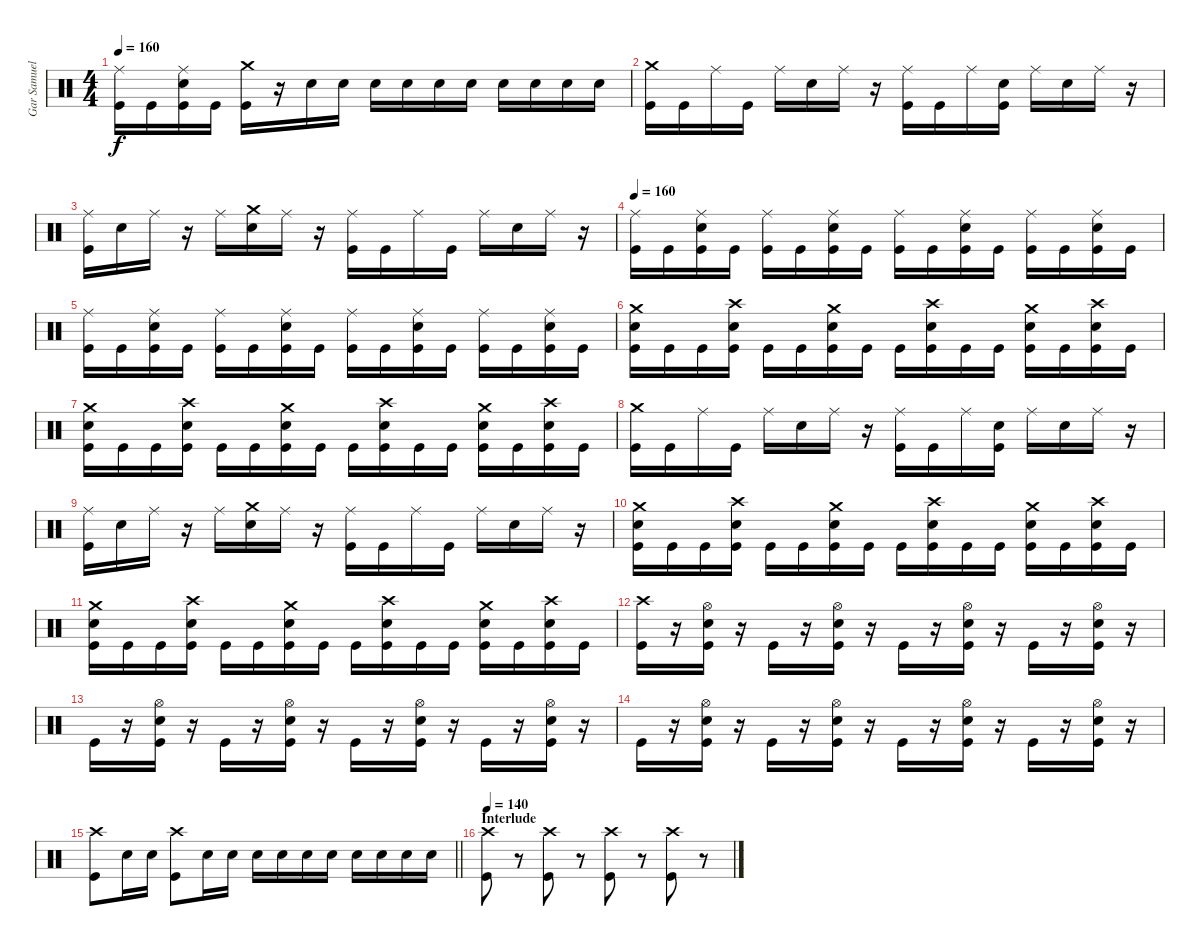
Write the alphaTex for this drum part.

\track ("Gar Samuelson" "Gar Samuel") {instrument percussion}
\staff {score}
\articulation defaults
\ts (4 4)
\tempo 160
\clef neutral
\ks c
("Ride (middle)" "Kick (hit)").16{dy f} "Kick (hit)".16 ("Ride (middle)" "Snare (hit) 2" "Kick (hit)").16 "Kick (hit)".16 ("Crash medium (hit)" "Kick (hit)").16 r.16 "Snare (hit) 2".16 "Snare (hit) 2".16 "Snare (hit) 2".16 "Snare (hit) 2".16 "Snare (hit) 2".16 "Snare (hit) 2".16 "Snare (hit) 2".16 "Snare (hit) 2".16 "Snare (hit) 2".16 "Snare (hit) 2".16 |
("Crash medium (hit)" "Kick (hit)").16 "Kick (hit)".16 "Ride (middle)".16 "Kick (hit)".16 "Ride (middle)".16 "Snare (hit) 2".16 "Ride (middle)".16 r.16 ("Ride (middle)" "Kick (hit)").16 "Kick (hit)".16 "Ride (middle)".16 ("Snare (hit) 2" "Kick (hit)").16 "Ride (middle)".16 "Snare (hit) 2".16 "Ride (middle)".16 r.16 |
("Ride (middle)" "Kick (hit)").16 "Snare (hit) 2".16 "Ride (middle)".16 r.16 "Ride (middle)".16 ("Crash medium (hit)" "Snare (hit) 2").16 "Ride (middle)".16 r.16 ("Ride (middle)" "Kick (hit)").16 "Kick (hit)".16 "Ride (middle)".16 "Kick (hit)".16 "Ride (middle)".16 "Snare (hit) 2".16 "Ride (middle)".16 r.16 |
\tempo 160
("Ride (middle)" "Kick (hit)").16 "Kick (hit)".16 ("Ride (middle)" "Snare (hit) 2" "Kick (hit)").16 "Kick (hit)".16 ("Ride (middle)" "Kick (hit)").16 "Kick (hit)".16 ("Ride (middle)" "Snare (hit) 2" "Kick (hit)").16 "Kick (hit)".16 ("Ride (middle)" "Kick (hit)").16 "Kick (hit)".16 ("Ride (middle)" "Snare (hit) 2" "Kick (hit)").16 "Kick (hit)".16 ("Ride (middle)" "Kick (hit)").16 "Kick (hit)".16 ("Ride (middle)" "Snare (hit) 2" "Kick (hit)").16 "Kick (hit)".16 |
("Ride (middle)" "Kick (hit)").16 "Kick (hit)".16 ("Ride (middle)" "Snare (hit) 2" "Kick (hit)").16 "Kick (hit)".16 ("Ride (middle)" "Kick (hit)").16 "Kick (hit)".16 ("Ride (middle)" "Snare (hit) 2" "Kick (hit)").16 "Kick (hit)".16 ("Ride (middle)" "Kick (hit)").16 "Kick (hit)".16 ("Ride (middle)" "Snare (hit) 2" "Kick (hit)").16 "Kick (hit)".16 ("Ride (middle)" "Kick (hit)").16 "Kick (hit)".16 ("Ride (middle)" "Snare (hit) 2" "Kick (hit)").16 "Kick (hit)".16 |
("Crash medium (hit)" "Snare (hit) 2" "Kick (hit)").16 "Kick (hit)".16 "Kick (hit)".16 ("Crash high (hit)" "Snare (hit) 2" "Kick (hit)").16 "Kick (hit)".16 "Kick (hit)".16 ("Crash medium (hit)" "Snare (hit) 2" "Kick (hit)").16 "Kick (hit)".16 "Kick (hit)".16 ("Crash high (hit)" "Snare (hit) 2" "Kick (hit)").16 "Kick (hit)".16 "Kick (hit)".16 ("Crash medium (hit)" "Snare (hit) 2" "Kick (hit)").16 "Kick (hit)".16 ("Crash high (hit)" "Snare (hit) 2" "Kick (hit)").16 "Kick (hit)".16 |
("Crash medium (hit)" "Snare (hit) 2" "Kick (hit)").16 "Kick (hit)".16 "Kick (hit)".16 ("Crash high (hit)" "Snare (hit) 2" "Kick (hit)").16 "Kick (hit)".16 "Kick (hit)".16 ("Crash medium (hit)" "Snare (hit) 2" "Kick (hit)").16 "Kick (hit)".16 "Kick (hit)".16 ("Crash high (hit)" "Snare (hit) 2" "Kick (hit)").16 "Kick (hit)".16 "Kick (hit)".16 ("Crash medium (hit)" "Snare (hit) 2" "Kick (hit)").16 "Kick (hit)".16 ("Crash high (hit)" "Snare (hit) 2" "Kick (hit)").16 "Kick (hit)".16 |
("Crash medium (hit)" "Kick (hit)").16 "Kick (hit)".16 "Ride (middle)".16 "Kick (hit)".16 "Ride (middle)".16 "Snare (hit) 2".16 "Ride (middle)".16 r.16 ("Ride (middle)" "Kick (hit)").16 "Kick (hit)".16 "Ride (middle)".16 ("Snare (hit) 2" "Kick (hit)").16 "Ride (middle)".16 "Snare (hit) 2".16 "Ride (middle)".16 r.16 |
("Ride (middle)" "Kick (hit)").16 "Snare (hit) 2".16 "Ride (middle)".16 r.16 "Ride (middle)".16 ("Crash medium (hit)" "Snare (hit) 2").16 "Ride (middle)".16 r.16 ("Ride (middle)" "Kick (hit)").16 "Kick (hit)".16 "Ride (middle)".16 "Kick (hit)".16 "Ride (middle)".16 "Snare (hit) 2".16 "Ride (middle)".16 r.16 |
("Crash medium (hit)" "Snare (hit) 2" "Kick (hit)").16 "Kick (hit)".16 "Kick (hit)".16 ("Crash high (hit)" "Snare (hit) 2" "Kick (hit)").16 "Kick (hit)".16 "Kick (hit)".16 ("Crash medium (hit)" "Snare (hit) 2" "Kick (hit)").16 "Kick (hit)".16 "Kick (hit)".16 ("Crash high (hit)" "Snare (hit) 2" "Kick (hit)").16 "Kick (hit)".16 "Kick (hit)".16 ("Crash medium (hit)" "Snare (hit) 2" "Kick (hit)").16 "Kick (hit)".16 ("Crash high (hit)" "Snare (hit) 2" "Kick (hit)").16 "Kick (hit)".16 |
("Crash medium (hit)" "Snare (hit) 2" "Kick (hit)").16 "Kick (hit)".16 "Kick (hit)".16 ("Crash high (hit)" "Snare (hit) 2" "Kick (hit)").16 "Kick (hit)".16 "Kick (hit)".16 ("Crash medium (hit)" "Snare (hit) 2" "Kick (hit)").16 "Kick (hit)".16 "Kick (hit)".16 ("Crash high (hit)" "Snare (hit) 2" "Kick (hit)").16 "Kick (hit)".16 "Kick (hit)".16 ("Crash medium (hit)" "Snare (hit) 2" "Kick (hit)").16 "Kick (hit)".16 ("Crash high (hit)" "Snare (hit) 2" "Kick (hit)").16 "Kick (hit)".16 |
("Crash high (hit)" "Kick (hit)").16 r.16 ("Hi-Hat (open)" "Snare (hit) 2" "Kick (hit)").16 r.16 "Kick (hit)".16 r.16 ("Hi-Hat (open)" "Snare (hit) 2" "Kick (hit)").16 r.16 "Kick (hit)".16 r.16 ("Hi-Hat (open)" "Snare (hit) 2" "Kick (hit)").16 r.16 "Kick (hit)".16 r.16 ("Hi-Hat (open)" "Snare (hit) 2" "Kick (hit)").16 r.16 |
"Kick (hit)".16 r.16 ("Hi-Hat (open)" "Snare (hit) 2" "Kick (hit)").16 r.16 "Kick (hit)".16 r.16 ("Hi-Hat (open)" "Snare (hit) 2" "Kick (hit)").16 r.16 "Kick (hit)".16 r.16 ("Hi-Hat (open)" "Snare (hit) 2" "Kick (hit)").16 r.16 "Kick (hit)".16 r.16 ("Hi-Hat (open)" "Snare (hit) 2" "Kick (hit)").16 r.16 |
"Kick (hit)".16 r.16 ("Hi-Hat (open)" "Snare (hit) 2" "Kick (hit)").16 r.16 "Kick (hit)".16 r.16 ("Hi-Hat (open)" "Snare (hit) 2" "Kick (hit)").16 r.16 "Kick (hit)".16 r.16 ("Hi-Hat (open)" "Snare (hit) 2" "Kick (hit)").16 r.16 "Kick (hit)".16 r.16 ("Hi-Hat (open)" "Snare (hit) 2" "Kick (hit)").16 r.16 |
\barLineRight lightlight
("Crash high (hit)" "Kick (hit)").8 "Snare (hit) 2".16 "Snare (hit) 2".16 ("Crash high (hit)" "Kick (hit)").8 "Snare (hit) 2".16 "Snare (hit) 2".16 "Snare (hit) 2".16 "Snare (hit) 2".16 "Snare (hit) 2".16 "Snare (hit) 2".16 "Snare (hit) 2".16 "Snare (hit) 2".16 "Snare (hit) 2".16 "Snare (hit) 2".16 |
\section ("" "Interlude")
\tempo 140
("Crash high (hit)" "Kick (hit)").8 r.8 ("Crash high (hit)" "Kick (hit)").8 r.8 ("Crash high (hit)" "Kick (hit)").8 r.8 ("Crash high (hit)" "Kick (hit)").8 r.8
